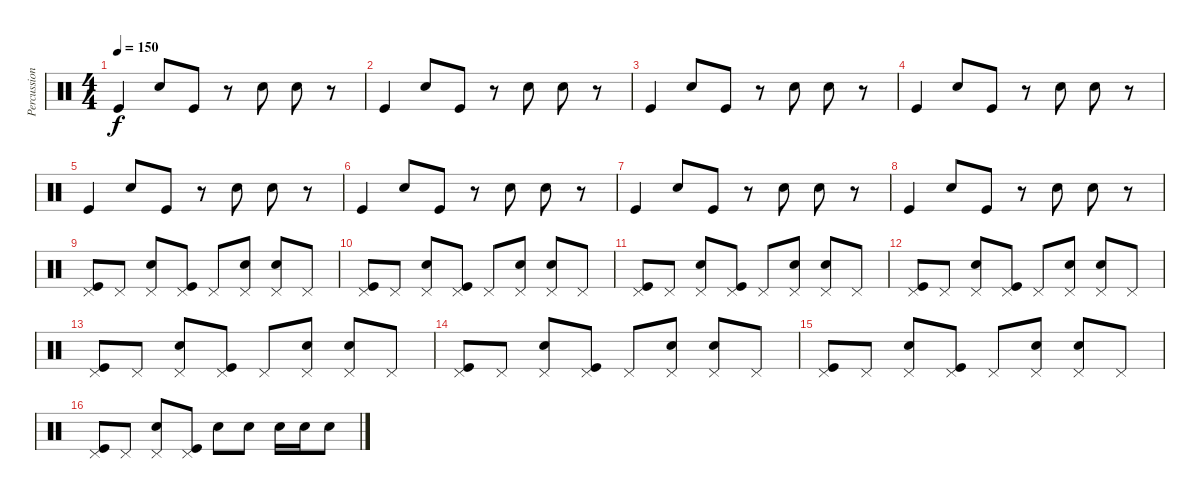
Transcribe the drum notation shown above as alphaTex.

\track ("Percussion" "Percussion") {instrument percussion}
\staff {score}
\articulation defaults
\ts (4 4)
\tempo 150
\clef neutral
\ks c "Kick (hit)".4{dy f} "Electric Snare (hit)".8 "Kick (hit)".8
r.8 "Electric Snare (hit)".8 "Electric Snare (hit)".8 r.8 |
"Kick (hit)".4 "Electric Snare (hit)".8 "Kick (hit)".8 r.8 "Electric Snare (hit)".8 "Electric Snare (hit)".8 r.8 |
"Kick (hit)".4 "Electric Snare (hit)".8 "Kick (hit)".8 r.8 "Electric Snare (hit)".8 "Electric Snare (hit)".8 r.8 |
"Kick (hit)".4 "Electric Snare (hit)".8 "Kick (hit)".8 r.8 "Electric Snare (hit)".8 "Electric Snare (hit)".8 r.8 |
"Kick (hit)".4 "Electric Snare (hit)".8 "Kick (hit)".8 r.8 "Electric Snare (hit)".8 "Electric Snare (hit)".8 r.8 |
"Kick (hit)".4 "Electric Snare (hit)".8 "Kick (hit)".8 r.8 "Electric Snare (hit)".8 "Electric Snare (hit)".8 r.8 |
"Kick (hit)".4 "Electric Snare (hit)".8 "Kick (hit)".8 r.8 "Electric Snare (hit)".8 "Electric Snare (hit)".8 r.8 |
"Kick (hit)".4 "Electric Snare (hit)".8 "Kick (hit)".8 r.8 "Electric Snare (hit)".8 "Electric Snare (hit)".8 r.8 |
("Kick (hit)" "Pedal Hi-Hat (hit)").8 "Pedal Hi-Hat (hit)".8 ("Electric Snare (hit)" "Pedal Hi-Hat (hit)").8 ("Kick (hit)" "Pedal Hi-Hat (hit)").8 "Pedal Hi-Hat (hit)".8 ("Electric Snare (hit)" "Pedal Hi-Hat (hit)").8 ("Electric Snare (hit)" "Pedal Hi-Hat (hit)").8 "Pedal Hi-Hat (hit)".8 |
("Kick (hit)" "Pedal Hi-Hat (hit)").8 "Pedal Hi-Hat (hit)".8 ("Electric Snare (hit)" "Pedal Hi-Hat (hit)").8 ("Kick (hit)" "Pedal Hi-Hat (hit)").8 "Pedal Hi-Hat (hit)".8 ("Electric Snare (hit)" "Pedal Hi-Hat (hit)").8 ("Electric Snare (hit)" "Pedal Hi-Hat (hit)").8 "Pedal Hi-Hat (hit)".8 |
("Kick (hit)" "Pedal Hi-Hat (hit)").8 "Pedal Hi-Hat (hit)".8 ("Electric Snare (hit)" "Pedal Hi-Hat (hit)").8 ("Kick (hit)" "Pedal Hi-Hat (hit)").8 "Pedal Hi-Hat (hit)".8 ("Electric Snare (hit)" "Pedal Hi-Hat (hit)").8 ("Electric Snare (hit)" "Pedal Hi-Hat (hit)").8 "Pedal Hi-Hat (hit)".8 |
("Kick (hit)" "Pedal Hi-Hat (hit)").8 "Pedal Hi-Hat (hit)".8 ("Electric Snare (hit)" "Pedal Hi-Hat (hit)").8 ("Kick (hit)" "Pedal Hi-Hat (hit)").8 "Pedal Hi-Hat (hit)".8 ("Electric Snare (hit)" "Pedal Hi-Hat (hit)").8 ("Electric Snare (hit)" "Pedal Hi-Hat (hit)").8 "Pedal Hi-Hat (hit)".8 |
("Kick (hit)" "Pedal Hi-Hat (hit)").8 "Pedal Hi-Hat (hit)".8 ("Electric Snare (hit)" "Pedal Hi-Hat (hit)").8 ("Kick (hit)" "Pedal Hi-Hat (hit)").8 "Pedal Hi-Hat (hit)".8 ("Electric Snare (hit)" "Pedal Hi-Hat (hit)").8 ("Electric Snare (hit)" "Pedal Hi-Hat (hit)").8 "Pedal Hi-Hat (hit)".8 |
("Kick (hit)" "Pedal Hi-Hat (hit)").8 "Pedal Hi-Hat (hit)".8 ("Electric Snare (hit)" "Pedal Hi-Hat (hit)").8 ("Kick (hit)" "Pedal Hi-Hat (hit)").8 "Pedal Hi-Hat (hit)".8 ("Electric Snare (hit)" "Pedal Hi-Hat (hit)").8 ("Electric Snare (hit)" "Pedal Hi-Hat (hit)").8 "Pedal Hi-Hat (hit)".8 |
("Kick (hit)" "Pedal Hi-Hat (hit)").8 "Pedal Hi-Hat (hit)".8 ("Electric Snare (hit)" "Pedal Hi-Hat (hit)").8 ("Kick (hit)" "Pedal Hi-Hat (hit)").8 "Pedal Hi-Hat (hit)".8 ("Electric Snare (hit)" "Pedal Hi-Hat (hit)").8 ("Electric Snare (hit)" "Pedal Hi-Hat (hit)").8 "Pedal Hi-Hat (hit)".8 |
("Kick (hit)" "Pedal Hi-Hat (hit)").8 "Pedal Hi-Hat (hit)".8 ("Electric Snare (hit)" "Pedal Hi-Hat (hit)").8 ("Kick (hit)" "Pedal Hi-Hat (hit)").8 "Electric Snare (hit)".8 "Electric Snare (hit)".8 "Electric Snare (hit)".16 "Electric Snare (hit)".16 "Electric Snare (hit)".8
